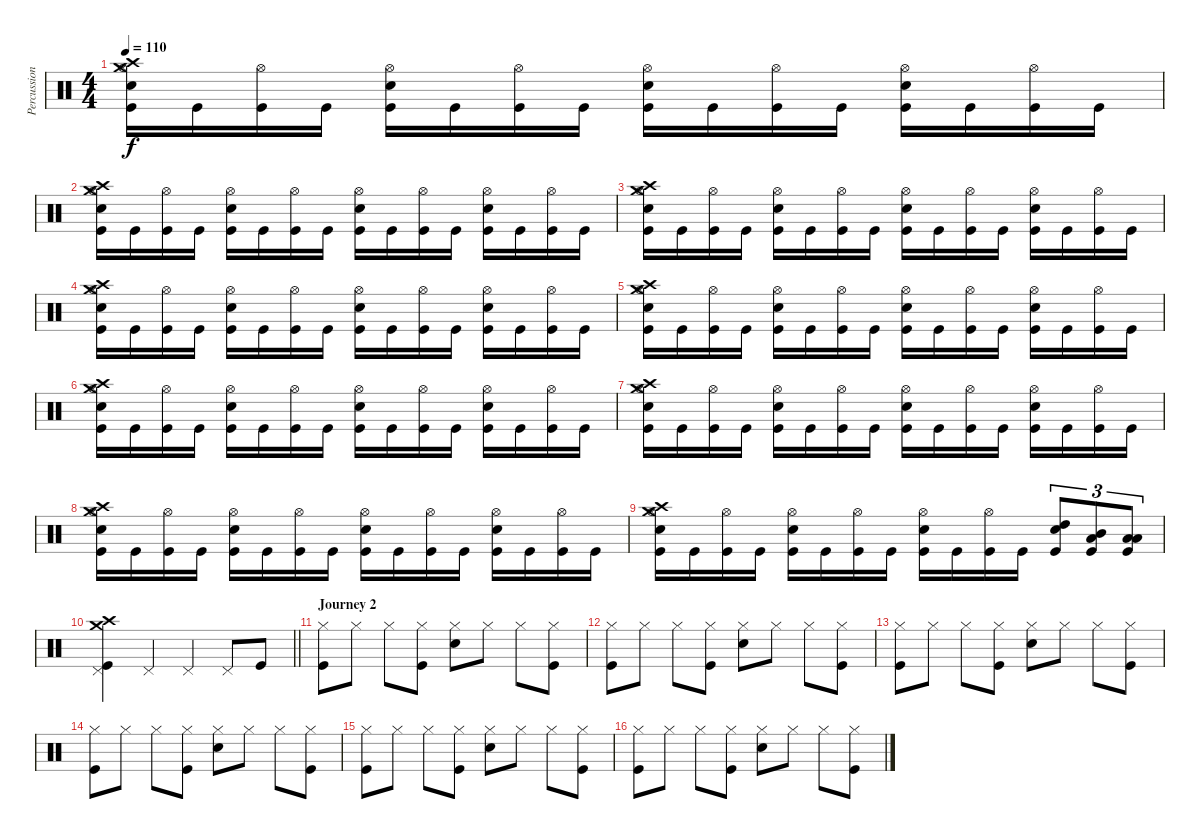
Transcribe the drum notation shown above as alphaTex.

\track ("Percussion" "Percussion") {instrument percussion}
\staff {score}
\articulation defaults
\ts (4 4)
\tempo 110
\clef neutral
\ks c
("Crash high (hit)" "Crash medium (hit)" "Snare (hit) 2" "Hi-Hat (open)" "Kick (hit)").16{dy f} "Kick (hit)".16 ("Hi-Hat (open)" "Kick (hit)").16 "Kick (hit)".16 ("Hi-Hat (open)" "Snare (hit) 2" "Kick (hit)").16 "Kick (hit)".16 ("Hi-Hat (open)" "Kick (hit)").16 "Kick (hit)".16 ("Hi-Hat (open)" "Snare (hit) 2" "Kick (hit)").16 "Kick (hit)".16 ("Hi-Hat (open)" "Kick (hit)").16 "Kick (hit)".16 ("Hi-Hat (open)" "Snare (hit) 2" "Kick (hit)").16 "Kick (hit)".16 ("Hi-Hat (open)" "Kick (hit)").16 "Kick (hit)".16 |
("Crash high (hit)" "Crash medium (hit)" "Snare (hit) 2" "Hi-Hat (open)" "Kick (hit)").16 "Kick (hit)".16 ("Hi-Hat (open)" "Kick (hit)").16 "Kick (hit)".16 ("Hi-Hat (open)" "Snare (hit) 2" "Kick (hit)").16 "Kick (hit)".16 ("Hi-Hat (open)" "Kick (hit)").16 "Kick (hit)".16 ("Hi-Hat (open)" "Snare (hit) 2" "Kick (hit)").16 "Kick (hit)".16 ("Hi-Hat (open)" "Kick (hit)").16 "Kick (hit)".16 ("Hi-Hat (open)" "Snare (hit) 2" "Kick (hit)").16 "Kick (hit)".16 ("Hi-Hat (open)" "Kick (hit)").16 "Kick (hit)".16 |
("Crash high (hit)" "Crash medium (hit)" "Snare (hit) 2" "Hi-Hat (open)" "Kick (hit)").16 "Kick (hit)".16 ("Hi-Hat (open)" "Kick (hit)").16 "Kick (hit)".16 ("Hi-Hat (open)" "Snare (hit) 2" "Kick (hit)").16 "Kick (hit)".16 ("Hi-Hat (open)" "Kick (hit)").16 "Kick (hit)".16 ("Hi-Hat (open)" "Snare (hit) 2" "Kick (hit)").16 "Kick (hit)".16 ("Hi-Hat (open)" "Kick (hit)").16 "Kick (hit)".16 ("Hi-Hat (open)" "Snare (hit) 2" "Kick (hit)").16 "Kick (hit)".16 ("Hi-Hat (open)" "Kick (hit)").16 "Kick (hit)".16 |
("Crash high (hit)" "Crash medium (hit)" "Snare (hit) 2" "Hi-Hat (open)" "Kick (hit)").16 "Kick (hit)".16 ("Hi-Hat (open)" "Kick (hit)").16 "Kick (hit)".16 ("Hi-Hat (open)" "Snare (hit) 2" "Kick (hit)").16 "Kick (hit)".16 ("Hi-Hat (open)" "Kick (hit)").16 "Kick (hit)".16 ("Hi-Hat (open)" "Snare (hit) 2" "Kick (hit)").16 "Kick (hit)".16 ("Hi-Hat (open)" "Kick (hit)").16 "Kick (hit)".16 ("Hi-Hat (open)" "Snare (hit) 2" "Kick (hit)").16 "Kick (hit)".16 ("Hi-Hat (open)" "Kick (hit)").16 "Kick (hit)".16 |
("Crash high (hit)" "Crash medium (hit)" "Snare (hit) 2" "Hi-Hat (open)" "Kick (hit)").16 "Kick (hit)".16 ("Hi-Hat (open)" "Kick (hit)").16 "Kick (hit)".16 ("Hi-Hat (open)" "Snare (hit) 2" "Kick (hit)").16 "Kick (hit)".16 ("Hi-Hat (open)" "Kick (hit)").16 "Kick (hit)".16 ("Hi-Hat (open)" "Snare (hit) 2" "Kick (hit)").16 "Kick (hit)".16 ("Hi-Hat (open)" "Kick (hit)").16 "Kick (hit)".16 ("Hi-Hat (open)" "Snare (hit) 2" "Kick (hit)").16 "Kick (hit)".16 ("Hi-Hat (open)" "Kick (hit)").16 "Kick (hit)".16 |
("Crash high (hit)" "Crash medium (hit)" "Snare (hit) 2" "Hi-Hat (open)" "Kick (hit)").16 "Kick (hit)".16 ("Hi-Hat (open)" "Kick (hit)").16 "Kick (hit)".16 ("Hi-Hat (open)" "Snare (hit) 2" "Kick (hit)").16 "Kick (hit)".16 ("Hi-Hat (open)" "Kick (hit)").16 "Kick (hit)".16 ("Hi-Hat (open)" "Snare (hit) 2" "Kick (hit)").16 "Kick (hit)".16 ("Hi-Hat (open)" "Kick (hit)").16 "Kick (hit)".16 ("Hi-Hat (open)" "Snare (hit) 2" "Kick (hit)").16 "Kick (hit)".16 ("Hi-Hat (open)" "Kick (hit)").16 "Kick (hit)".16 |
("Crash high (hit)" "Crash medium (hit)" "Snare (hit) 2" "Hi-Hat (open)" "Kick (hit)").16 "Kick (hit)".16 ("Hi-Hat (open)" "Kick (hit)").16 "Kick (hit)".16 ("Hi-Hat (open)" "Snare (hit) 2" "Kick (hit)").16 "Kick (hit)".16 ("Hi-Hat (open)" "Kick (hit)").16 "Kick (hit)".16 ("Hi-Hat (open)" "Snare (hit) 2" "Kick (hit)").16 "Kick (hit)".16 ("Hi-Hat (open)" "Kick (hit)").16 "Kick (hit)".16 ("Hi-Hat (open)" "Snare (hit) 2" "Kick (hit)").16 "Kick (hit)".16 ("Hi-Hat (open)" "Kick (hit)").16 "Kick (hit)".16 |
("Crash high (hit)" "Crash medium (hit)" "Snare (hit) 2" "Hi-Hat (open)" "Kick (hit)").16 "Kick (hit)".16 ("Hi-Hat (open)" "Kick (hit)").16 "Kick (hit)".16 ("Hi-Hat (open)" "Snare (hit) 2" "Kick (hit)").16 "Kick (hit)".16 ("Hi-Hat (open)" "Kick (hit)").16 "Kick (hit)".16 ("Hi-Hat (open)" "Snare (hit) 2" "Kick (hit)").16 "Kick (hit)".16 ("Hi-Hat (open)" "Kick (hit)").16 "Kick (hit)".16 ("Hi-Hat (open)" "Snare (hit) 2" "Kick (hit)").16 "Kick (hit)".16 ("Hi-Hat (open)" "Kick (hit)").16 "Kick (hit)".16 |
("Crash high (hit)" "Crash medium (hit)" "Snare (hit) 2" "Hi-Hat (open)" "Kick (hit)").16 "Kick (hit)".16 ("Hi-Hat (open)" "Kick (hit)").16 "Kick (hit)".16 ("Hi-Hat (open)" "Snare (hit) 2" "Kick (hit)").16 "Kick (hit)".16 ("Hi-Hat (open)" "Kick (hit)").16 "Kick (hit)".16 ("Hi-Hat (open)" "Snare (hit) 2" "Kick (hit)").16 "Kick (hit)".16 ("Hi-Hat (open)" "Kick (hit)").16 "Kick (hit)".16 ("High Tom (hit)" "Snare (hit) 2" "Kick (hit)").8{tu (3 2)} ("Mid Tom (hit)" "Low Floor Tom (hit)" "Kick (hit)").8{tu (3 2)} ("Low Tom (hit)" "Low Floor Tom (hit)" "Kick (hit)").8{tu (3 2)} |
\barLineRight lightlight
("Crash high (hit)" "Crash medium (hit)" "Pedal Hi-Hat (hit)" "Kick (hit)").4 "Pedal Hi-Hat (hit)".4 "Pedal Hi-Hat (hit)".4 "Pedal Hi-Hat (hit)".8 "Kick (hit)".8 |
\section ("" "Journey 2")
("Hi-Hat (closed)" "Kick (hit)").8 "Hi-Hat (closed)".8 "Hi-Hat (closed)".8 ("Hi-Hat (closed)" "Kick (hit)").8 ("Hi-Hat (closed)" "Snare (hit) 2").8 "Hi-Hat (closed)".8 "Hi-Hat (closed)".8 ("Hi-Hat (closed)" "Kick (hit)").8 |
("Hi-Hat (closed)" "Kick (hit)").8 "Hi-Hat (closed)".8 "Hi-Hat (closed)".8 ("Hi-Hat (closed)" "Kick (hit)").8 ("Hi-Hat (closed)" "Snare (hit) 2").8 "Hi-Hat (closed)".8 "Hi-Hat (closed)".8 ("Hi-Hat (closed)" "Kick (hit)").8 |
("Hi-Hat (closed)" "Kick (hit)").8 "Hi-Hat (closed)".8 "Hi-Hat (closed)".8 ("Hi-Hat (closed)" "Kick (hit)").8 ("Hi-Hat (closed)" "Snare (hit) 2").8 "Hi-Hat (closed)".8 "Hi-Hat (closed)".8 ("Hi-Hat (closed)" "Kick (hit)").8 |
("Hi-Hat (closed)" "Kick (hit)").8 "Hi-Hat (closed)".8 "Hi-Hat (closed)".8 ("Hi-Hat (closed)" "Kick (hit)").8 ("Hi-Hat (closed)" "Snare (hit) 2").8 "Hi-Hat (closed)".8 "Hi-Hat (closed)".8 ("Hi-Hat (closed)" "Kick (hit)").8 |
("Hi-Hat (closed)" "Kick (hit)").8 "Hi-Hat (closed)".8 "Hi-Hat (closed)".8 ("Hi-Hat (closed)" "Kick (hit)").8 ("Hi-Hat (closed)" "Snare (hit) 2").8 "Hi-Hat (closed)".8 "Hi-Hat (closed)".8 ("Hi-Hat (closed)" "Kick (hit)").8 |
("Hi-Hat (closed)" "Kick (hit)").8 "Hi-Hat (closed)".8 "Hi-Hat (closed)".8 ("Hi-Hat (closed)" "Kick (hit)").8 ("Hi-Hat (closed)" "Snare (hit) 2").8 "Hi-Hat (closed)".8 "Hi-Hat (closed)".8 ("Hi-Hat (closed)" "Kick (hit)").8
